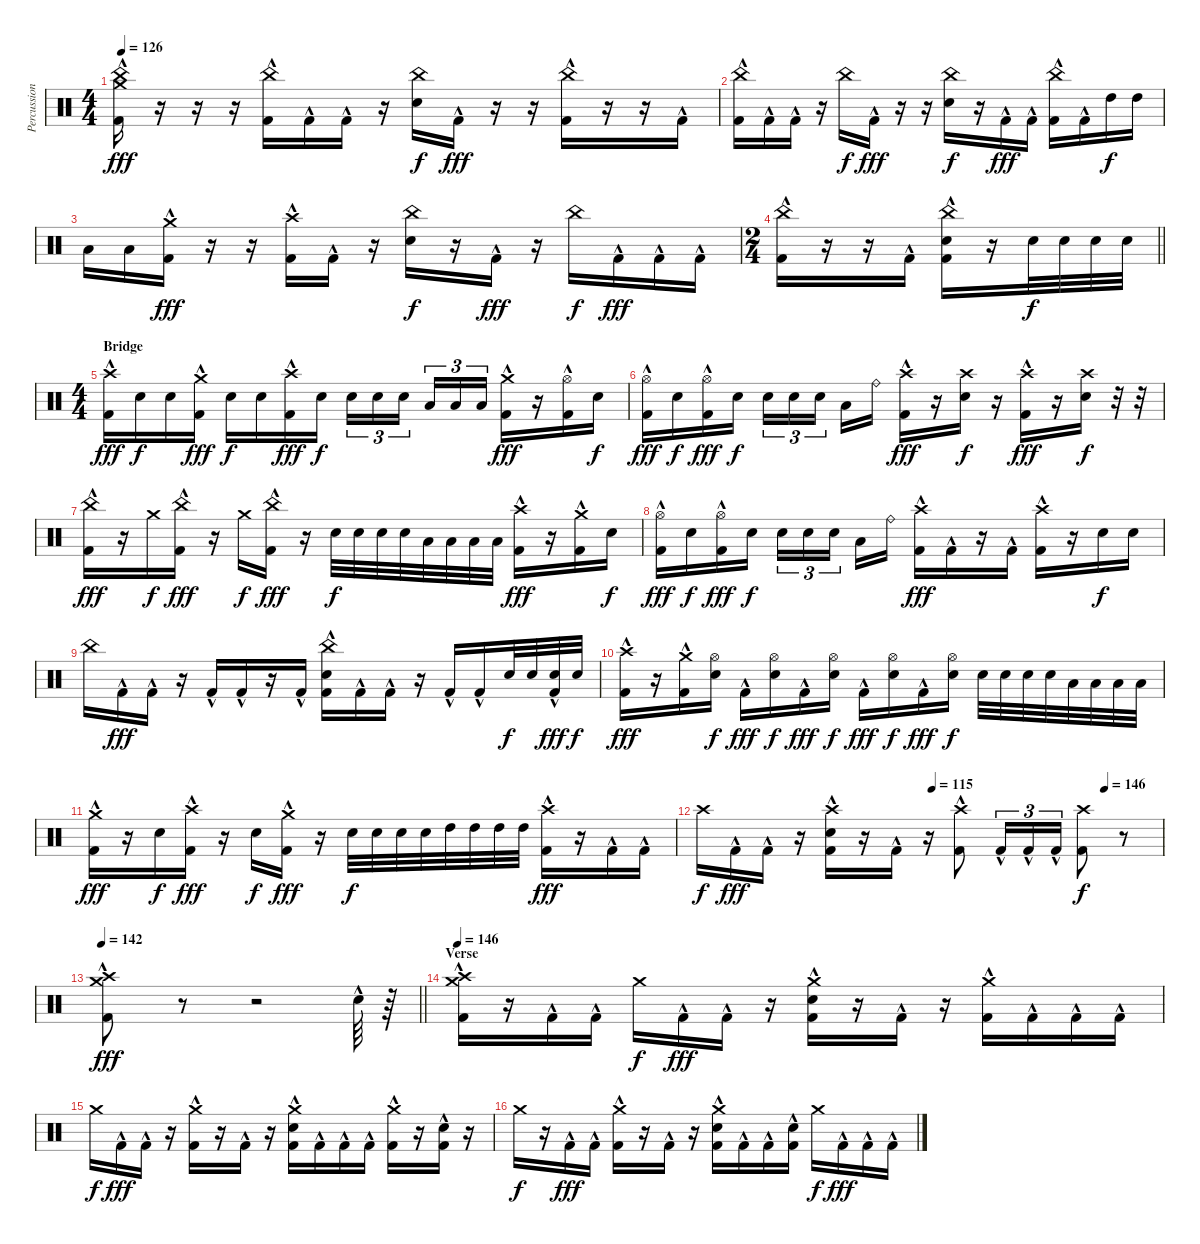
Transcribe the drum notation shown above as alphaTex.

\track ("Percussion" "Percussion") {instrument percussion}
\staff {score}
\articulation defaults
\ts (4 4)
\tempo 126
\clef neutral
\ks aminor
("Crash medium (hit)" "China (hit)" "Kick (hit) 2"{hac}).16{dy fff} r.16 r.16 r.16 ("China (hit)" "Kick (hit) 2"{hac}).16 "Kick (hit) 2"{hac}.16 "Kick (hit) 2"{hac}.16 r.16 ("China (hit)" "Electric Snare (hit)").16{dy f} "Kick (hit) 2"{hac}.16{dy fff} r.16 r.16 ("China (hit)" "Kick (hit) 2"{hac}).16 r.16 r.16 "Kick (hit) 2"{hac}.16 |
("China (hit)" "Kick (hit) 2"{hac}).16 "Kick (hit) 2"{hac}.16 "Kick (hit) 2"{hac}.16 r.16 "China (hit)".16{dy f} "Kick (hit) 2"{hac}.16{dy fff} r.16 r.16 ("China (hit)" "Electric Snare (hit)").16{dy f} r.16 "Kick (hit) 2"{hac}.16{dy fff} "Kick (hit) 2"{hac}.16 ("China (hit)" "Kick (hit) 2"{hac}).16 "Kick (hit) 2"{hac}.16 "High Tom (hit)".16{dy f} "High Tom (hit)".16 |
"Low Floor Tom (hit)".16 "Low Floor Tom (hit)".16 ("Crash medium (hit)" "Kick (hit) 2"{hac}).16{dy fff} r.16 r.16 ("Crash high (hit)" "Kick (hit) 2"{hac}).16 "Kick (hit) 2"{hac}.16 r.16 ("China (hit)" "Electric Snare (hit)").16{dy f} r.16 "Kick (hit) 2"{hac}.16{dy fff} r.16 "China (hit)".16{dy f} "Kick (hit) 2"{hac}.16{dy fff} "Kick (hit) 2"{hac}.16 "Kick (hit) 2"{hac}.16 |
\ts (2 4)
\barLineRight lightlight
("China (hit)" "Kick (hit) 2"{hac}).16 r.16 r.16 "Kick (hit) 2"{hac}.16 ("China (hit)" "Electric Snare (hit)" "Kick (hit) 2"{hac}).16 r.16 "Electric Snare (hit)".32{dy f} "Electric Snare (hit)".32 "Electric Snare (hit)".32 "Electric Snare (hit)".32 |
\ts (4 4)
\section ("" "Bridge")
("Kick (hit) 2"{hac} "Crash high (hit)").16{dy fff} "Electric Snare (hit)".16{dy f} "Electric Snare (hit)".16 ("Kick (hit) 2"{hac} "Crash medium (hit)").16{dy fff} "Electric Snare (hit)".16{dy f} "Electric Snare (hit)".16 ("Kick (hit) 2"{hac} "Crash high (hit)").16{dy fff} "Electric Snare (hit)".16{dy f} "Electric Snare (hit)".16{tu (3 2)} "Electric Snare (hit)".16{tu (3 2)} "Electric Snare (hit)".16{tu (3 2) beam splitsecondary} "Low Tom (hit)".16{tu (3 2)} "Low Tom (hit)".16{tu (3 2)} "Low Tom (hit)".16{tu (3 2)} ("Crash medium (hit)" "Kick (hit) 2"{hac}).16{dy fff} r.16 ("Kick (hit) 2"{hac} "Hi-Hat (open)").16 "Electric Snare (hit)".16{dy f} |
("Kick (hit) 2"{hac} "Hi-Hat (open)").16{dy fff} "Electric Snare (hit)".16{dy f} ("Kick (hit) 2"{hac} "Hi-Hat (open)").16{dy fff} "Electric Snare (hit)".16{dy f} "Electric Snare (hit)".16{tu (3 2)} "Electric Snare (hit)".16{tu (3 2)} "Electric Snare (hit)".16{tu (3 2) beam splitsecondary} "Low Tom (hit)".16 "Ride (bell)".16 ("Kick (hit) 2"{hac} "Crash high (hit)").16{dy fff} r.16 ("Crash high (hit)" "Electric Snare (hit)").16{dy f} r.16 ("Kick (hit) 2"{hac} "Crash high (hit)").16{dy fff} r.16 ("Crash high (hit)" "Electric Snare (hit)").16{dy f} r.32 r.32 |
("Kick (hit) 2"{hac} "China (hit)").16{dy fff} r.16 "Crash medium (hit)".16{dy f} ("Kick (hit) 2"{hac} "China (hit)").16{dy fff} r.16 "Crash medium (hit)".16{dy f} ("Kick (hit) 2"{hac} "China (hit)").16{dy fff} r.16 "Electric Snare (hit)".32{dy f} "Electric Snare (hit)".32 "Electric Snare (hit)".32 "Electric Snare (hit)".32 "Low Tom (hit)".32 "Low Tom (hit)".32 "Low Tom (hit)".32 "Low Tom (hit)".32 ("Kick (hit) 2"{hac} "Crash high (hit)").16{dy fff} r.16 ("Kick (hit) 2"{hac} "Crash medium (hit)").16 "Electric Snare (hit)".16{dy f} |
("Kick (hit) 2"{hac} "Hi-Hat (open)").16{dy fff} "Electric Snare (hit)".16{dy f} ("Kick (hit) 2"{hac} "Hi-Hat (open)").16{dy fff} "Electric Snare (hit)".16{dy f} "Electric Snare (hit)".16{tu (3 2)} "Electric Snare (hit)".16{tu (3 2)} "Electric Snare (hit)".16{tu (3 2) beam splitsecondary} "Low Tom (hit)".16 "Ride (bell)".16 ("Kick (hit) 2"{hac} "Crash high (hit)").16{dy fff} "Kick (hit) 2"{hac}.16 r.16 "Kick (hit) 2"{hac}.16 ("Kick (hit) 2"{hac} "Crash high (hit)").16 r.16 "Electric Snare (hit)".16{dy f} "Electric Snare (hit)".16 |
"China (hit)".16 "Kick (hit) 2"{hac}.16{dy fff} "Kick (hit) 2"{hac}.16 r.16 "Kick (hit) 2"{hac}.16 "Kick (hit) 2"{hac}.16 r.16 "Kick (hit) 2"{hac}.16 ("Kick (hit) 2"{hac} "China (hit)" "Electric Snare (hit)").16 "Kick (hit) 2"{hac}.16 "Kick (hit) 2"{hac}.16 r.16 "Kick (hit) 2"{hac}.16 "Kick (hit) 2"{hac}.16 "Electric Snare (hit)".32{dy f} "Electric Snare (hit)".32 ("Kick (hit) 2"{hac} "Electric Snare (hit)").32{dy fff} "Electric Snare (hit)".32{dy f} |
("Kick (hit) 2"{hac} "Crash high (hit)").16{dy fff} r.16 ("Kick (hit) 2"{hac} "Crash medium (hit)").16 ("Electric Snare (hit)" "Hi-Hat (open)").16{dy f} "Kick (hit) 2"{hac}.16{dy fff} ("Electric Snare (hit)" "Hi-Hat (open)").16{dy f} "Kick (hit) 2"{hac}.16{dy fff} ("Electric Snare (hit)" "Hi-Hat (open)").16{dy f} "Kick (hit) 2"{hac}.16{dy fff} ("Electric Snare (hit)" "Hi-Hat (open)").16{dy f} "Kick (hit) 2"{hac}.16{dy fff} ("Electric Snare (hit)" "Hi-Hat (open)").16{dy f} "Electric Snare (hit)".32 "Electric Snare (hit)".32 "Electric Snare (hit)".32 "Electric Snare (hit)".32 "Low Tom (hit)".32 "Low Tom (hit)".32 "Low Tom (hit)".32 "Low Tom (hit)".32 |
("Kick (hit) 2"{hac} "Crash medium (hit)").16{dy fff} r.16 "Electric Snare (hit)".16{dy f} ("Kick (hit) 2"{hac} "Crash high (hit)").16{dy fff} r.16 "Electric Snare (hit)".16{dy f} ("Kick (hit) 2"{hac} "Crash medium (hit)").16{dy fff} r.16 "Electric Snare (hit)".32{dy f} "Electric Snare (hit)".32 "Electric Snare (hit)".32 "Electric Snare (hit)".32 "High Tom (hit)".32 "High Tom (hit)".32 "High Tom (hit)".32 "High Tom (hit)".32 ("Kick (hit) 2"{hac} "Crash high (hit)").16{dy fff} r.16 "Kick (hit) 2"{hac}.16 "Kick (hit) 2"{hac}.16 |
\tempo (115 0.5)
\tempo (146 0.875)
"Crash high (hit)".16{dy f} "Kick (hit) 2"{hac}.16{dy fff} "Kick (hit) 2"{hac}.16 r.16 ("Kick (hit) 2"{hac} "Electric Snare (hit)" "Crash high (hit)").16 r.16 "Kick (hit) 2"{hac}.16 r.16 ("Kick (hit) 2"{hac} "Crash high (hit)").8 "Kick (hit) 2"{hac}.16{tu (3 2)} "Kick (hit) 2"{hac}.16{tu (3 2)} "Kick (hit) 2"{hac}.16{tu (3 2)} ("Kick (hit) 2" "Crash high (hit)").8{dy f} r.8 |
\tempo 142
\barLineRight lightlight
("Crash high (hit)" "Crash medium (hit)" "Kick (hit) 2"{hac}).8{dy fff} r.8{volume 0} r.2 "Electric Snare (hit)"{hac}.64{volume 13} r.64 |
\section ("" "Verse")
\tempo 146
("Kick (hit) 2"{hac} "Crash high (hit)" "Crash medium (hit)").16 r.16 "Kick (hit) 2"{hac}.16 "Kick (hit) 2"{hac}.16 "Crash medium (hit)".16{dy f} "Kick (hit) 2"{hac}.16{dy fff} "Kick (hit) 2"{hac}.16 r.16 ("Kick (hit) 2"{hac} "Electric Snare (hit)" "Crash medium (hit)").16 r.16 "Kick (hit) 2"{hac}.16 r.16 ("Kick (hit) 2"{hac} "Crash medium (hit)").16 "Kick (hit) 2"{hac}.16 "Kick (hit) 2"{hac}.16 "Kick (hit) 2"{hac}.16 |
"Crash medium (hit)".16{dy f} "Kick (hit) 2"{hac}.16{dy fff} "Kick (hit) 2"{hac}.16 r.16 ("Kick (hit) 2"{hac} "Crash medium (hit)").16 r.16 "Kick (hit) 2"{hac}.16 r.16 ("Kick (hit) 2"{hac} "Electric Snare (hit)" "Crash medium (hit)").16 "Kick (hit) 2"{hac}.16 "Kick (hit) 2"{hac}.16 "Kick (hit) 2"{hac}.16 ("Kick (hit) 2"{hac} "Crash medium (hit)").16 r.16 ("Kick (hit) 2"{hac} "Electric Snare (hit)").16 r.16 |
"Crash medium (hit)".16{dy f} r.16 "Kick (hit) 2"{hac}.16{dy fff} "Kick (hit) 2"{hac}.16 ("Kick (hit) 2"{hac} "Crash medium (hit)").16 r.16 "Kick (hit) 2"{hac}.16 r.16 ("Kick (hit) 2"{hac} "Electric Snare (hit)" "Crash medium (hit)").16 "Kick (hit) 2"{hac}.16 "Kick (hit) 2"{hac}.16 ("Kick (hit) 2"{hac} "Electric Snare (hit)").16 "Crash medium (hit)".16{dy f} "Kick (hit) 2"{hac}.16{dy fff} "Kick (hit) 2"{hac}.16 "Kick (hit) 2"{hac}.16
